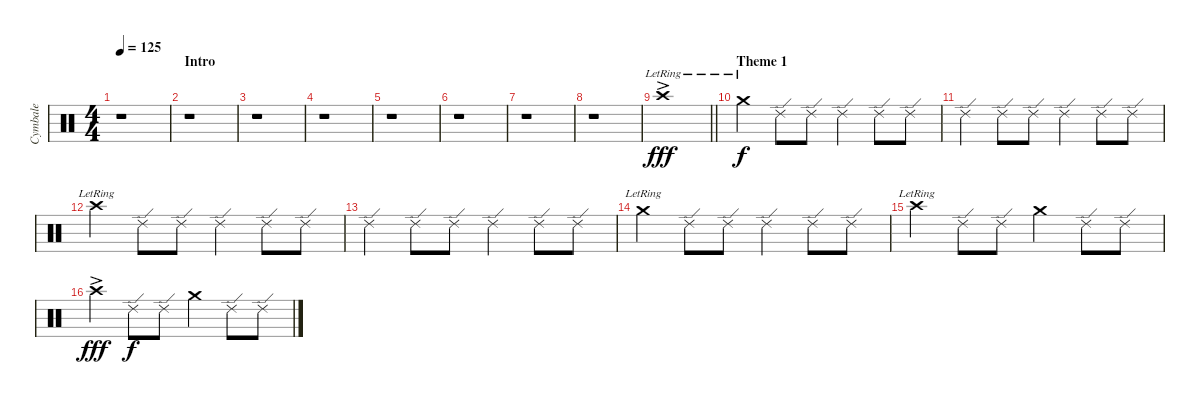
\track ("Cymbale" "Cymbale") {instrument percussion}
\staff {score}
\articulation defaults
\ts (4 4)
\tempo 125
\clef neutral
\ks c
r.1{dy fff} |
\section ("" "Intro")
r.1 |
r.1 |
r.1 |
r.1 |
r.1 |
r.1 |
r.1 |
\barLineRight lightlight "Crash high (hit)"{ac lr}.1
|
\section ("" "Theme 1")
"Crash medium (hit)"{lr}.4{dy f} "Ride (edge) 2".8 "Ride (edge) 2".8 "Ride (edge) 2".4 "Ride (edge) 2".8 "Ride (edge) 2".8 |
"Ride (edge) 2".4 "Ride (edge) 2".8 "Ride (edge) 2".8 "Ride (edge) 2".4 "Ride (edge) 2".8 "Ride (edge) 2".8 |
"Crash high (hit)"{lr}.4 "Ride (edge) 2".8 "Ride (edge) 2".8 "Ride (edge) 2".4 "Ride (edge) 2".8 "Ride (edge) 2".8 |
"Ride (edge) 2".4 "Ride (edge) 2".8 "Ride (edge) 2".8 "Ride (edge) 2".4 "Ride (edge) 2".8 "Ride (edge) 2".8 |
"Crash medium (hit)"{lr}.4 "Ride (edge) 2".8 "Ride (edge) 2".8 "Ride (edge) 2".4 "Ride (edge) 2".8 "Ride (edge) 2".8 |
"Crash high (hit)"{lr}.4 "Ride (edge) 2".8 "Ride (edge) 2".8 "Crash medium (hit)".4 "Ride (edge) 2".8 "Ride (edge) 2".8 |
"Crash high (hit)"{ac}.4{dy fff} "Ride (edge) 2".8{dy f} "Ride (edge) 2".8 "Crash medium (hit)".4 "Ride (edge) 2".8 "Ride (edge) 2".8
